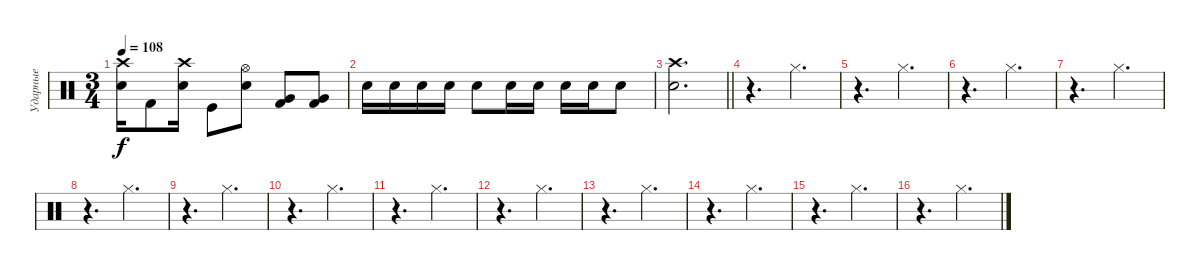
\track ("Ударные" "Ударные") {instrument percussion}
\staff {score}
\articulation defaults
\ts (3 4)
\tempo 108
\clef neutral
\ks c
("Snare (hit) 2" "Crash high (hit)").16{dy f} "Kick (hit) 2".8 ("Snare (hit) 2" "Crash high (hit)").16 "Kick (hit)".8 ("Snare (hit) 2" "Hi-Hat (open)").8 ("Kick (hit) 2" "Very Low Tom (hit)").8 ("Kick (hit) 2" "Very Low Tom (hit)").8 |
"Snare (hit) 2".16 "Snare (hit) 2".16 "Snare (hit) 2".16 "Snare (hit) 2".16 "Snare (hit) 2".8 "Snare (hit) 2".16 "Snare (hit) 2".16 "Snare (hit) 2".16 "Snare (hit) 2".16 "Snare (hit) 2".8 |
\barLineRight lightlight
("Snare (hit) 2" "Crash high (hit)").2{d} |
r.4{d} "Hi-Hat (closed)".4{d} |
r.4{d} "Hi-Hat (closed)".4{d} |
r.4{d} "Hi-Hat (closed)".4{d} |
r.4{d} "Hi-Hat (closed)".4{d} |
r.4{d} "Hi-Hat (closed)".4{d} |
r.4{d} "Hi-Hat (closed)".4{d} |
r.4{d} "Hi-Hat (closed)".4{d} |
r.4{d} "Hi-Hat (closed)".4{d} |
r.4{d} "Hi-Hat (closed)".4{d} |
r.4{d} "Hi-Hat (closed)".4{d} |
r.4{d} "Hi-Hat (closed)".4{d} |
r.4{d} "Hi-Hat (closed)".4{d} |
r.4{d} "Hi-Hat (closed)".4{d}
